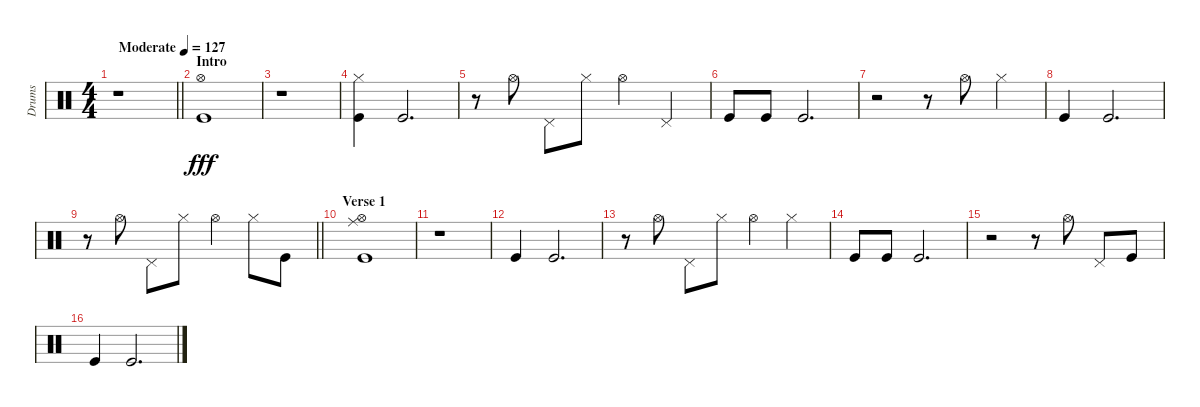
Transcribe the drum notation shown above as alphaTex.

\track ("Drums" "Drums") {instrument percussion}
\staff {score}
\articulation defaults
\ts (4 4)
\tempo (127 "Moderate")
\clef neutral
\barLineRight lightlight
\ks c
r.1{dy fff} |
\section ("" "Intro")
("Kick (hit)" "Hi-Hat (open)").1 |
r.1 |
("Kick (hit)" "Hi-Hat (closed)").4 "Kick (hit)".2{d} |
r.8 "Hi-Hat (open)".8 "Pedal Hi-Hat (hit)".8 "Hi-Hat (closed)".8 "Hi-Hat (open)".4 "Pedal Hi-Hat (hit)".4 |
"Kick (hit)".8 "Kick (hit)".8 "Kick (hit)".2{d} |
r.2 r.8 "Hi-Hat (open)".8 "Hi-Hat (closed)".4 |
"Kick (hit)".4 "Kick (hit)".2{d} |
\barLineRight lightlight
r.8 "Hi-Hat (open)".8 "Pedal Hi-Hat (hit)".8 "Hi-Hat (closed)".8 "Hi-Hat (open)".4 "Hi-Hat (closed)".8 "Kick (hit)".8 |
\section ("" "Verse 1")
("Kick (hit)" "Hi-Hat (open)" "Ride (middle)").1 |
r.1 |
"Kick (hit)".4 "Kick (hit)".2{d} |
r.8 "Hi-Hat (open)".8 "Pedal Hi-Hat (hit)".8 "Hi-Hat (closed)".8 "Hi-Hat (open)".4 "Hi-Hat (closed)".4 |
"Kick (hit)".8 "Kick (hit)".8 "Kick (hit)".2{d} |
r.2 r.8 "Hi-Hat (open)".8 "Pedal Hi-Hat (hit)".8 "Kick (hit)".8 |
"Kick (hit)".4 "Kick (hit)".2{d}
